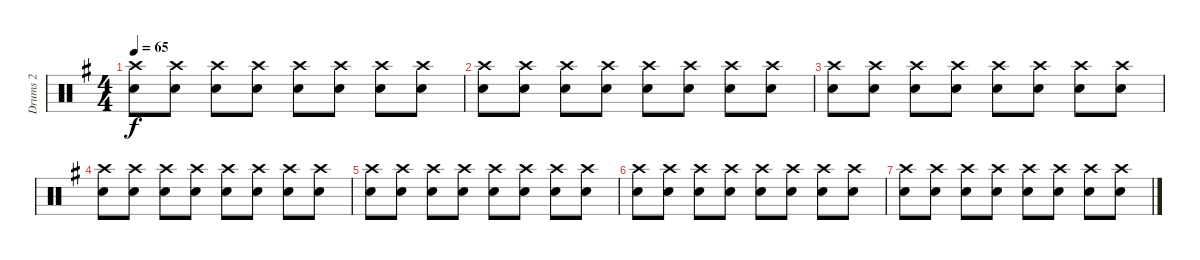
\track ("Drums 2 " "Drums 2 ") {instrument percussion}
\staff {score}
\articulation defaults
\ts (4 4)
\tempo 65
\clef neutral
\ks g
("Crash high (hit)" "Snare (hit) 2").8{dy f} ("Crash high (hit)" "Snare (hit) 2").8 ("Crash high (hit)" "Snare (hit) 2").8 ("Crash high (hit)" "Snare (hit) 2").8 ("Crash high (hit)" "Snare (hit) 2").8 ("Crash high (hit)" "Snare (hit) 2").8 ("Crash high (hit)" "Snare (hit) 2").8 ("Crash high (hit)" "Snare (hit) 2").8 |
("Crash high (hit)" "Snare (hit) 2").8 ("Crash high (hit)" "Snare (hit) 2").8 ("Crash high (hit)" "Snare (hit) 2").8 ("Crash high (hit)" "Snare (hit) 2").8 ("Crash high (hit)" "Snare (hit) 2").8 ("Crash high (hit)" "Snare (hit) 2").8 ("Crash high (hit)" "Snare (hit) 2").8 ("Crash high (hit)" "Snare (hit) 2").8 |
("Crash high (hit)" "Snare (hit) 2").8 ("Crash high (hit)" "Snare (hit) 2").8 ("Crash high (hit)" "Snare (hit) 2").8 ("Crash high (hit)" "Snare (hit) 2").8 ("Crash high (hit)" "Snare (hit) 2").8 ("Crash high (hit)" "Snare (hit) 2").8 ("Crash high (hit)" "Snare (hit) 2").8 ("Crash high (hit)" "Snare (hit) 2").8 |
("Crash high (hit)" "Snare (hit) 2").8 ("Crash high (hit)" "Snare (hit) 2").8 ("Crash high (hit)" "Snare (hit) 2").8 ("Crash high (hit)" "Snare (hit) 2").8 ("Crash high (hit)" "Snare (hit) 2").8 ("Crash high (hit)" "Snare (hit) 2").8 ("Crash high (hit)" "Snare (hit) 2").8 ("Crash high (hit)" "Snare (hit) 2").8 |
("Crash high (hit)" "Snare (hit) 2").8 ("Crash high (hit)" "Snare (hit) 2").8 ("Crash high (hit)" "Snare (hit) 2").8 ("Crash high (hit)" "Snare (hit) 2").8 ("Crash high (hit)" "Snare (hit) 2").8 ("Crash high (hit)" "Snare (hit) 2").8 ("Crash high (hit)" "Snare (hit) 2").8 ("Crash high (hit)" "Snare (hit) 2").8 |
("Crash high (hit)" "Snare (hit) 2").8 ("Crash high (hit)" "Snare (hit) 2").8 ("Crash high (hit)" "Snare (hit) 2").8 ("Crash high (hit)" "Snare (hit) 2").8 ("Crash high (hit)" "Snare (hit) 2").8 ("Crash high (hit)" "Snare (hit) 2").8 ("Crash high (hit)" "Snare (hit) 2").8 ("Crash high (hit)" "Snare (hit) 2").8 |
("Crash high (hit)" "Snare (hit) 2").8 ("Crash high (hit)" "Snare (hit) 2").8 ("Crash high (hit)" "Snare (hit) 2").8 ("Crash high (hit)" "Snare (hit) 2").8 ("Crash high (hit)" "Snare (hit) 2").8 ("Crash high (hit)" "Snare (hit) 2").8 ("Crash high (hit)" "Snare (hit) 2").8 ("Crash high (hit)" "Snare (hit) 2").8
